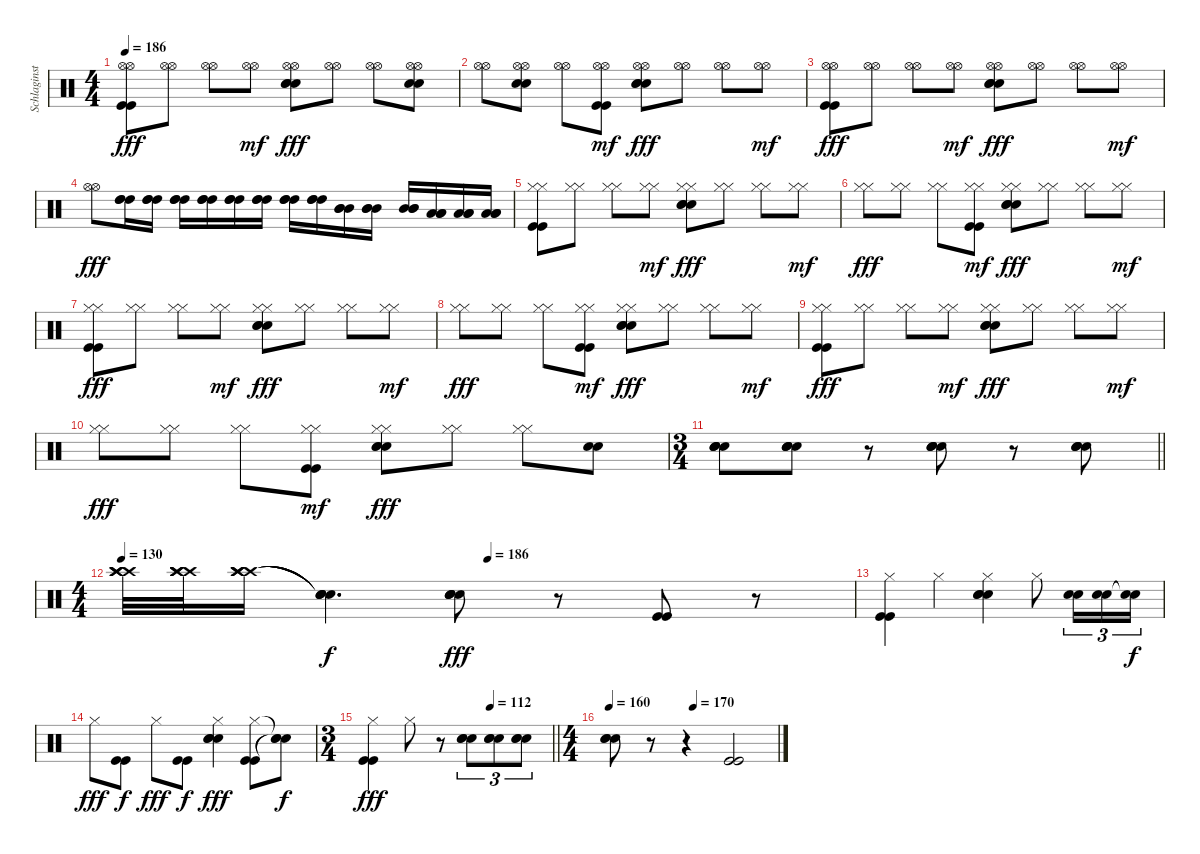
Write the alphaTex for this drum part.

\track ("Schlaginstrumente - Auswahl" "Schlaginst") {instrument percussion}
\staff {score}
\articulation defaults
\ts (4 4)
\tempo 186
\clef neutral
\ks c
("Hi-Hat (open)" "Hi-Hat (open)" "Kick (hit)" "Kick (hit)").8{dy fff} ("Hi-Hat (open)" "Hi-Hat (open)").8 ("Hi-Hat (open)" "Hi-Hat (open)").8 ("Hi-Hat (open)" "Hi-Hat (open)").8{dy mf} ("Hi-Hat (open)" "Hi-Hat (open)" "Snare (hit) 2" "Snare (hit) 2" "Snare (hit) 2").8{dy fff} ("Hi-Hat (open)" "Hi-Hat (open)").8 ("Hi-Hat (open)" "Hi-Hat (open)").8 ("Hi-Hat (open)" "Hi-Hat (open)" "Snare (hit) 2" "Snare (hit) 2").8 |
("Hi-Hat (open)" "Hi-Hat (open)").8 ("Hi-Hat (open)" "Hi-Hat (open)" "Snare (hit) 2" "Snare (hit) 2").8 ("Hi-Hat (open)" "Hi-Hat (open)").8 ("Hi-Hat (open)" "Hi-Hat (open)" "Kick (hit)" "Kick (hit)").8{dy mf} ("Hi-Hat (open)" "Hi-Hat (open)" "Snare (hit) 2" "Snare (hit) 2" "Snare (hit) 2").8{dy fff} ("Hi-Hat (open)" "Hi-Hat (open)").8 ("Hi-Hat (open)" "Hi-Hat (open)").8 ("Hi-Hat (open)" "Hi-Hat (open)").8{dy mf} |
("Hi-Hat (open)" "Hi-Hat (open)" "Kick (hit)" "Kick (hit)").8{dy fff} ("Hi-Hat (open)" "Hi-Hat (open)").8 ("Hi-Hat (open)" "Hi-Hat (open)").8 ("Hi-Hat (open)" "Hi-Hat (open)").8{dy mf} ("Hi-Hat (open)" "Hi-Hat (open)" "Snare (hit) 2" "Snare (hit) 2" "Snare (hit) 2").8{dy fff} ("Hi-Hat (open)" "Hi-Hat (open)").8 ("Hi-Hat (open)" "Hi-Hat (open)").8 ("Hi-Hat (open)" "Hi-Hat (open)").8{dy mf} |
("Hi-Hat (open)" "Hi-Hat (open)").8{dy fff} ("High Tom (hit)" "High Tom (hit)" "High Tom (hit)").16 ("High Tom (hit)" "High Tom (hit)" "High Tom (hit)").16 ("High Tom (hit)" "High Tom (hit)" "High Tom (hit)").16 ("High Tom (hit)" "High Tom (hit)" "High Tom (hit)").16 ("High Tom (hit)" "High Tom (hit)" "High Tom (hit)").16 ("High Tom (hit)" "High Tom (hit)" "High Tom (hit)").16 ("High Tom (hit)" "High Tom (hit)" "High Tom (hit)").16 ("High Tom (hit)" "High Tom (hit)" "High Tom (hit)").16 ("Mid Tom (hit)" "Mid Tom (hit)" "Mid Tom (hit)").16 ("Mid Tom (hit)" "Mid Tom (hit)" "Mid Tom (hit)").16 ("Mid Tom (hit)" "Mid Tom (hit)" "Mid Tom (hit)").16 ("Low Tom (hit)" "Low Tom (hit)" "Low Tom (hit)").16 ("Low Tom (hit)" "Low Tom (hit)" "Low Tom (hit)").16 ("Low Tom (hit)" "Low Tom (hit)" "Low Tom (hit)").16 |
("Hi-Hat (closed)" "Hi-Hat (closed)" "Kick (hit)" "Kick (hit)").8 ("Hi-Hat (closed)" "Hi-Hat (closed)").8 ("Hi-Hat (closed)" "Hi-Hat (closed)").8 ("Hi-Hat (closed)" "Hi-Hat (closed)").8{dy mf} ("Hi-Hat (closed)" "Hi-Hat (closed)" "Snare (hit) 2" "Snare (hit) 2" "Snare (hit) 2").8{dy fff} ("Hi-Hat (closed)" "Hi-Hat (closed)").8 ("Hi-Hat (closed)" "Hi-Hat (closed)").8 ("Hi-Hat (closed)" "Hi-Hat (closed)").8{dy mf} |
("Hi-Hat (closed)" "Hi-Hat (closed)").8{dy fff} ("Hi-Hat (closed)" "Hi-Hat (closed)").8 ("Hi-Hat (closed)" "Hi-Hat (closed)").8 ("Hi-Hat (closed)" "Hi-Hat (closed)" "Kick (hit)" "Kick (hit)").8{dy mf} ("Hi-Hat (closed)" "Hi-Hat (closed)" "Snare (hit) 2" "Snare (hit) 2" "Snare (hit) 2").8{dy fff} ("Hi-Hat (closed)" "Hi-Hat (closed)").8 ("Hi-Hat (closed)" "Hi-Hat (closed)").8 ("Hi-Hat (closed)" "Hi-Hat (closed)").8{dy mf} |
("Hi-Hat (closed)" "Hi-Hat (closed)" "Kick (hit)" "Kick (hit)").8{dy fff} ("Hi-Hat (closed)" "Hi-Hat (closed)").8 ("Hi-Hat (closed)" "Hi-Hat (closed)").8 ("Hi-Hat (closed)" "Hi-Hat (closed)").8{dy mf} ("Hi-Hat (closed)" "Hi-Hat (closed)" "Snare (hit) 2" "Snare (hit) 2" "Snare (hit) 2").8{dy fff} ("Hi-Hat (closed)" "Hi-Hat (closed)").8 ("Hi-Hat (closed)" "Hi-Hat (closed)").8 ("Hi-Hat (closed)" "Hi-Hat (closed)").8{dy mf} |
("Hi-Hat (closed)" "Hi-Hat (closed)").8{dy fff} ("Hi-Hat (closed)" "Hi-Hat (closed)").8 ("Hi-Hat (closed)" "Hi-Hat (closed)").8 ("Hi-Hat (closed)" "Hi-Hat (closed)" "Kick (hit)" "Kick (hit)").8{dy mf} ("Hi-Hat (closed)" "Hi-Hat (closed)" "Snare (hit) 2" "Snare (hit) 2" "Snare (hit) 2").8{dy fff} ("Hi-Hat (closed)" "Hi-Hat (closed)").8 ("Hi-Hat (closed)" "Hi-Hat (closed)").8 ("Hi-Hat (closed)" "Hi-Hat (closed)").8{dy mf} |
("Hi-Hat (closed)" "Hi-Hat (closed)" "Kick (hit)" "Kick (hit)").8{dy fff} ("Hi-Hat (closed)" "Hi-Hat (closed)").8 ("Hi-Hat (closed)" "Hi-Hat (closed)").8 ("Hi-Hat (closed)" "Hi-Hat (closed)").8{dy mf} ("Hi-Hat (closed)" "Hi-Hat (closed)" "Snare (hit) 2" "Snare (hit) 2" "Snare (hit) 2").8{dy fff} ("Hi-Hat (closed)" "Hi-Hat (closed)").8 ("Hi-Hat (closed)" "Hi-Hat (closed)").8 ("Hi-Hat (closed)" "Hi-Hat (closed)").8{dy mf} |
("Hi-Hat (closed)" "Hi-Hat (closed)").8{dy fff} ("Hi-Hat (closed)" "Hi-Hat (closed)").8 ("Hi-Hat (closed)" "Hi-Hat (closed)").8 ("Hi-Hat (closed)" "Hi-Hat (closed)" "Kick (hit)" "Kick (hit)").8{dy mf} ("Hi-Hat (closed)" "Hi-Hat (closed)" "Snare (hit) 2" "Snare (hit) 2" "Snare (hit) 2").8{dy fff} ("Hi-Hat (closed)" "Hi-Hat (closed)").8 ("Hi-Hat (closed)" "Hi-Hat (closed)").8 ("Snare (hit) 2" "Snare (hit) 2").8 |
\ts (3 4)
\barLineRight lightlight
("Snare (hit) 2" "Snare (hit) 2" "Snare (hit) 2" "Snare (hit) 2").8 ("Snare (hit) 2" "Snare (hit) 2" "Snare (hit) 2" "Snare (hit) 2").8 r.8 ("Snare (hit) 2" "Snare (hit) 2" "Snare (hit) 2" "Snare (hit) 2").8 r.8 ("Snare (hit) 2" "Snare (hit) 2" "Snare (hit) 2" "Snare (hit) 2").8 |
\ts (4 4)
\tempo 130
\tempo (186 0.5)
("Crash high (hit)" "Crash high (hit)" "Crash high (hit)" "Crash high (hit)").32 ("Crash high (hit)" "Crash high (hit)" "Crash high (hit)" "Crash high (hit)").32 ("Crash high (hit)" "Crash high (hit)" "Crash high (hit)" "Crash high (hit)").16 ("Snare (hit)"{t} "Snare (hit)"{t} "Snare (hit)"{t} "Snare (hit)"{t}).4{d dy f} ("Snare (hit) 2" "Snare (hit) 2" "Snare (hit) 2" "Snare (hit) 2").8{dy fff} r.8 ("Kick (hit)" "Kick (hit)").8 r.8 |
("Hi-Hat (closed)" "Kick (hit)" "Kick (hit)").4 "Hi-Hat (closed)".4 ("Hi-Hat (closed)" "Snare (hit) 2" "Snare (hit) 2" "Snare (hit) 2").4 "Hi-Hat (closed)".8 ("Snare (hit) 2" "Snare (hit) 2").16{tu (3 2)} ("Snare (hit) 2" "Snare (hit) 2").16{tu (3 2)} ("Snare (hit)"{t} "Snare (hit)"{t}).16{tu (3 2) dy f} |
"Hi-Hat (closed)".8{dy fff} ("Kick (hit)" "Kick (hit)").8{dy f} "Hi-Hat (closed)".8{dy fff} ("Kick (hit)" "Kick (hit)").8{dy f} ("Hi-Hat (closed)" "Snare (hit) 2" "Snare (hit) 2" "Snare (hit) 2").4{dy fff} ("Hi-Hat (closed)" "Kick (hit)" "Kick (hit)").8 ("Snare (hit)"{t} "Snare (hit)"{t} "Snare (hit)"{t}).8{dy f} |
\ts (3 4)
\tempo (112 0.6666666666666666)
\barLineRight lightlight
("Hi-Hat (closed)" "Kick (hit)" "Kick (hit)").4{dy fff} "Hi-Hat (closed)".8 r.8 ("Snare (hit) 2" "Snare (hit) 2" "Snare (hit) 2").8{tu (3 2)} ("Snare (hit) 2" "Snare (hit) 2" "Snare (hit) 2").8{tu (3 2)} ("Snare (hit) 2" "Snare (hit) 2" "Snare (hit) 2").8{tu (3 2)} |
\ts (4 4)
\tempo 160
\tempo (170 0.5)
("Snare (hit) 2" "Snare (hit) 2" "Snare (hit) 2").8 r.8 r.4 ("Kick (hit)" "Kick (hit)").2
